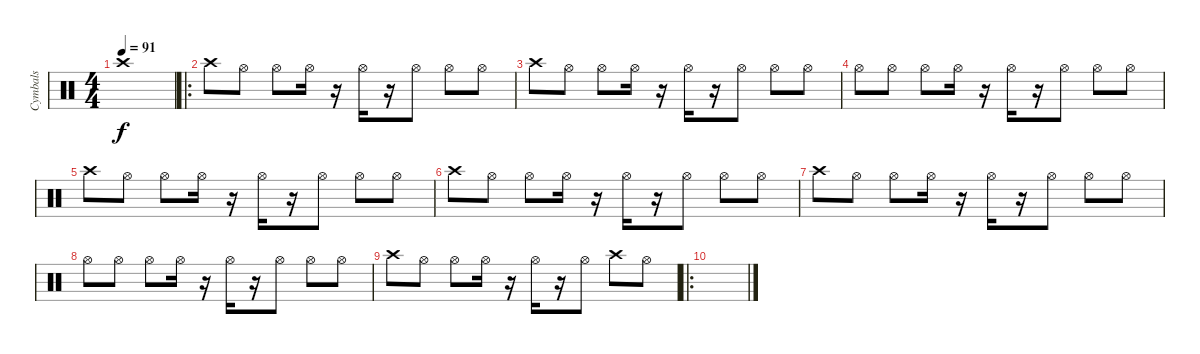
\track ("Cymbals" "Cymbals") {instrument percussion}
\staff {score}
\articulation defaults
\ts (4 4)
\tempo 91
\clef neutral
\ks c "Crash high (hit)".1{dy f}
|
\ro "Crash high (hit)".8 "Hi-Hat (open)".8 "Hi-Hat (open)".8 "Hi-Hat (open)".16
r.16 "Hi-Hat (open)".16 r.16 "Hi-Hat (open)".8 "Hi-Hat (open)".8 "Hi-Hat (open)".8 |
"Crash high (hit)".8 "Hi-Hat (open)".8 "Hi-Hat (open)".8 "Hi-Hat (open)".16 r.16 "Hi-Hat (open)".16 r.16 "Hi-Hat (open)".8 "Hi-Hat (open)".8 "Hi-Hat (open)".8 |
"Hi-Hat (open)".8 "Hi-Hat (open)".8 "Hi-Hat (open)".8 "Hi-Hat (open)".16 r.16 "Hi-Hat (open)".16 r.16 "Hi-Hat (open)".8 "Hi-Hat (open)".8 "Hi-Hat (open)".8 |
"Crash high (hit)".8 "Hi-Hat (open)".8 "Hi-Hat (open)".8 "Hi-Hat (open)".16 r.16 "Hi-Hat (open)".16 r.16 "Hi-Hat (open)".8 "Hi-Hat (open)".8 "Hi-Hat (open)".8 |
"Crash high (hit)".8 "Hi-Hat (open)".8 "Hi-Hat (open)".8 "Hi-Hat (open)".16 r.16 "Hi-Hat (open)".16 r.16 "Hi-Hat (open)".8 "Hi-Hat (open)".8 "Hi-Hat (open)".8 |
"Crash high (hit)".8 "Hi-Hat (open)".8 "Hi-Hat (open)".8 "Hi-Hat (open)".16 r.16 "Hi-Hat (open)".16 r.16 "Hi-Hat (open)".8 "Hi-Hat (open)".8 "Hi-Hat (open)".8 |
"Hi-Hat (open)".8 "Hi-Hat (open)".8 "Hi-Hat (open)".8 "Hi-Hat (open)".16 r.16 "Hi-Hat (open)".16 r.16 "Hi-Hat (open)".8 "Hi-Hat (open)".8 "Hi-Hat (open)".8 |
"Crash high (hit)".8 "Hi-Hat (open)".8 "Hi-Hat (open)".8 "Hi-Hat (open)".16 r.16 "Hi-Hat (open)".16 r.16 "Hi-Hat (open)".8 "Crash high (hit)".8 "Hi-Hat (open)".8 |
\ro
